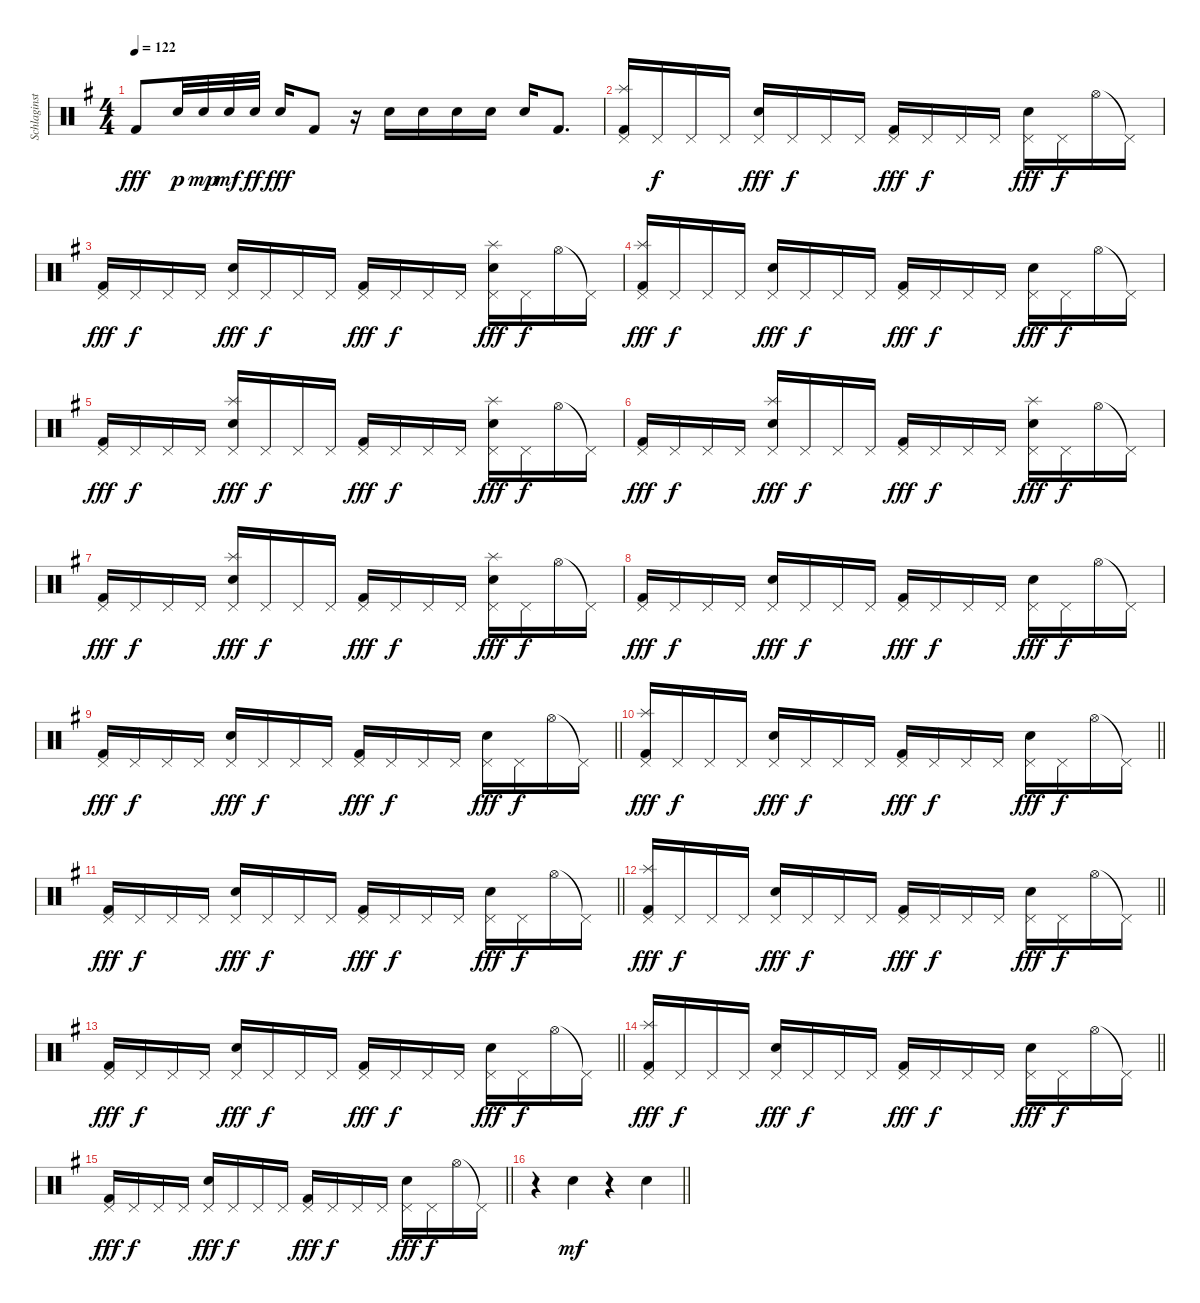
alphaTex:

\track ("Schlaginstrumente - Auswahl" "Schlaginst") {instrument percussion}
\staff {score}
\articulation defaults
\ts (4 4)
\tempo 122
\clef neutral
\ks g "Kick (hit) 2".8{dy fff} "Electric Snare (hit)".32{dy p} "Electric Snare (hit)".32{dy mp} "Electric Snare (hit)".32{dy mf} "Electric Snare (hit)".32{dy ff} "Electric Snare (hit)".16{dy fff} "Kick (hit) 2".8
r.16 "Electric Snare (hit)".16 "Electric Snare (hit)".16 "Electric Snare (hit)".16 "Electric Snare (hit)".16 "Electric Snare (hit)".16 "Kick (hit) 2".8{d} |
("Splash (hit)" "Pedal Hi-Hat (hit)" "Kick (hit) 2").16 "Pedal Hi-Hat (hit)".16{dy f} "Pedal Hi-Hat (hit)".16 "Pedal Hi-Hat (hit)".16 ("Pedal Hi-Hat (hit)" "Electric Snare (hit)").16{dy fff} "Pedal Hi-Hat (hit)".16{dy f} "Pedal Hi-Hat (hit)".16 "Pedal Hi-Hat (hit)".16 ("Pedal Hi-Hat (hit)" "Kick (hit) 2").16{dy fff} "Pedal Hi-Hat (hit)".16{dy f} "Pedal Hi-Hat (hit)".16 "Pedal Hi-Hat (hit)".16 ("Pedal Hi-Hat (hit)" "Electric Snare (hit)").16{dy fff} "Pedal Hi-Hat (hit)".16{dy f} "Hi-Hat (open)".16 "Pedal Hi-Hat (hit)"{t}.16 |
("Pedal Hi-Hat (hit)" "Kick (hit) 2").16{dy fff} "Pedal Hi-Hat (hit)".16{dy f} "Pedal Hi-Hat (hit)".16 "Pedal Hi-Hat (hit)".16 ("Pedal Hi-Hat (hit)" "Electric Snare (hit)").16{dy fff} "Pedal Hi-Hat (hit)".16{dy f} "Pedal Hi-Hat (hit)".16 "Pedal Hi-Hat (hit)".16 ("Pedal Hi-Hat (hit)" "Kick (hit) 2").16{dy fff} "Pedal Hi-Hat (hit)".16{dy f} "Pedal Hi-Hat (hit)".16 "Pedal Hi-Hat (hit)".16 ("Splash (hit)" "Pedal Hi-Hat (hit)" "Electric Snare (hit)").16{dy fff} "Pedal Hi-Hat (hit)".16{dy f} "Hi-Hat (open)".16 "Pedal Hi-Hat (hit)"{t}.16 |
("Splash (hit)" "Pedal Hi-Hat (hit)" "Kick (hit) 2").16{dy fff} "Pedal Hi-Hat (hit)".16{dy f} "Pedal Hi-Hat (hit)".16 "Pedal Hi-Hat (hit)".16 ("Pedal Hi-Hat (hit)" "Electric Snare (hit)").16{dy fff} "Pedal Hi-Hat (hit)".16{dy f} "Pedal Hi-Hat (hit)".16 "Pedal Hi-Hat (hit)".16 ("Pedal Hi-Hat (hit)" "Kick (hit) 2").16{dy fff} "Pedal Hi-Hat (hit)".16{dy f} "Pedal Hi-Hat (hit)".16 "Pedal Hi-Hat (hit)".16 ("Pedal Hi-Hat (hit)" "Electric Snare (hit)").16{dy fff} "Pedal Hi-Hat (hit)".16{dy f} "Hi-Hat (open)".16 "Pedal Hi-Hat (hit)"{t}.16 |
("Pedal Hi-Hat (hit)" "Kick (hit) 2").16{dy fff} "Pedal Hi-Hat (hit)".16{dy f} "Pedal Hi-Hat (hit)".16 "Pedal Hi-Hat (hit)".16 ("Splash (hit)" "Pedal Hi-Hat (hit)" "Electric Snare (hit)").16{dy fff} "Pedal Hi-Hat (hit)".16{dy f} "Pedal Hi-Hat (hit)".16 "Pedal Hi-Hat (hit)".16 ("Pedal Hi-Hat (hit)" "Kick (hit) 2").16{dy fff} "Pedal Hi-Hat (hit)".16{dy f} "Pedal Hi-Hat (hit)".16 "Pedal Hi-Hat (hit)".16 ("Splash (hit)" "Pedal Hi-Hat (hit)" "Electric Snare (hit)").16{dy fff} "Pedal Hi-Hat (hit)".16{dy f} "Hi-Hat (open)".16 "Pedal Hi-Hat (hit)"{t}.16 |
("Pedal Hi-Hat (hit)" "Kick (hit) 2").16{dy fff} "Pedal Hi-Hat (hit)".16{dy f} "Pedal Hi-Hat (hit)".16 "Pedal Hi-Hat (hit)".16 ("Splash (hit)" "Pedal Hi-Hat (hit)" "Electric Snare (hit)").16{dy fff} "Pedal Hi-Hat (hit)".16{dy f} "Pedal Hi-Hat (hit)".16 "Pedal Hi-Hat (hit)".16 ("Pedal Hi-Hat (hit)" "Kick (hit) 2").16{dy fff} "Pedal Hi-Hat (hit)".16{dy f} "Pedal Hi-Hat (hit)".16 "Pedal Hi-Hat (hit)".16 ("Splash (hit)" "Pedal Hi-Hat (hit)" "Electric Snare (hit)").16{dy fff} "Pedal Hi-Hat (hit)".16{dy f} "Hi-Hat (open)".16 "Pedal Hi-Hat (hit)"{t}.16 |
("Pedal Hi-Hat (hit)" "Kick (hit) 2").16{dy fff} "Pedal Hi-Hat (hit)".16{dy f} "Pedal Hi-Hat (hit)".16 "Pedal Hi-Hat (hit)".16 ("Splash (hit)" "Pedal Hi-Hat (hit)" "Electric Snare (hit)").16{dy fff} "Pedal Hi-Hat (hit)".16{dy f} "Pedal Hi-Hat (hit)".16 "Pedal Hi-Hat (hit)".16 ("Pedal Hi-Hat (hit)" "Kick (hit) 2").16{dy fff} "Pedal Hi-Hat (hit)".16{dy f} "Pedal Hi-Hat (hit)".16 "Pedal Hi-Hat (hit)".16 ("Splash (hit)" "Pedal Hi-Hat (hit)" "Electric Snare (hit)").16{dy fff} "Pedal Hi-Hat (hit)".16{dy f} "Hi-Hat (open)".16 "Pedal Hi-Hat (hit)"{t}.16 |
("Pedal Hi-Hat (hit)" "Kick (hit) 2").16{dy fff} "Pedal Hi-Hat (hit)".16{dy f} "Pedal Hi-Hat (hit)".16 "Pedal Hi-Hat (hit)".16 ("Pedal Hi-Hat (hit)" "Electric Snare (hit)").16{dy fff} "Pedal Hi-Hat (hit)".16{dy f} "Pedal Hi-Hat (hit)".16 "Pedal Hi-Hat (hit)".16 ("Pedal Hi-Hat (hit)" "Kick (hit) 2").16{dy fff} "Pedal Hi-Hat (hit)".16{dy f} "Pedal Hi-Hat (hit)".16 "Pedal Hi-Hat (hit)".16 ("Pedal Hi-Hat (hit)" "Electric Snare (hit)").16{dy fff} "Pedal Hi-Hat (hit)".16{dy f} "Hi-Hat (open)".16 "Pedal Hi-Hat (hit)"{t}.16 |
\barLineRight lightlight
("Pedal Hi-Hat (hit)" "Kick (hit) 2").16{dy fff} "Pedal Hi-Hat (hit)".16{dy f} "Pedal Hi-Hat (hit)".16 "Pedal Hi-Hat (hit)".16 ("Pedal Hi-Hat (hit)" "Electric Snare (hit)").16{dy fff} "Pedal Hi-Hat (hit)".16{dy f} "Pedal Hi-Hat (hit)".16 "Pedal Hi-Hat (hit)".16 ("Pedal Hi-Hat (hit)" "Kick (hit) 2").16{dy fff} "Pedal Hi-Hat (hit)".16{dy f} "Pedal Hi-Hat (hit)".16 "Pedal Hi-Hat (hit)".16 ("Pedal Hi-Hat (hit)" "Electric Snare (hit)").16{dy fff} "Pedal Hi-Hat (hit)".16{dy f} "Hi-Hat (open)".16 "Pedal Hi-Hat (hit)"{t}.16 |
\barLineRight lightlight
("Splash (hit)" "Pedal Hi-Hat (hit)" "Kick (hit) 2").16{dy fff} "Pedal Hi-Hat (hit)".16{dy f} "Pedal Hi-Hat (hit)".16 "Pedal Hi-Hat (hit)".16 ("Pedal Hi-Hat (hit)" "Electric Snare (hit)").16{dy fff} "Pedal Hi-Hat (hit)".16{dy f} "Pedal Hi-Hat (hit)".16 "Pedal Hi-Hat (hit)".16 ("Pedal Hi-Hat (hit)" "Kick (hit) 2").16{dy fff} "Pedal Hi-Hat (hit)".16{dy f} "Pedal Hi-Hat (hit)".16 "Pedal Hi-Hat (hit)".16 ("Pedal Hi-Hat (hit)" "Electric Snare (hit)").16{dy fff} "Pedal Hi-Hat (hit)".16{dy f} "Hi-Hat (open)".16 "Pedal Hi-Hat (hit)"{t}.16 |
\barLineRight lightlight
("Pedal Hi-Hat (hit)" "Kick (hit) 2").16{dy fff} "Pedal Hi-Hat (hit)".16{dy f} "Pedal Hi-Hat (hit)".16 "Pedal Hi-Hat (hit)".16 ("Pedal Hi-Hat (hit)" "Electric Snare (hit)").16{dy fff} "Pedal Hi-Hat (hit)".16{dy f} "Pedal Hi-Hat (hit)".16 "Pedal Hi-Hat (hit)".16 ("Pedal Hi-Hat (hit)" "Kick (hit) 2").16{dy fff} "Pedal Hi-Hat (hit)".16{dy f} "Pedal Hi-Hat (hit)".16 "Pedal Hi-Hat (hit)".16 ("Pedal Hi-Hat (hit)" "Electric Snare (hit)").16{dy fff} "Pedal Hi-Hat (hit)".16{dy f} "Hi-Hat (open)".16 "Pedal Hi-Hat (hit)"{t}.16 |
\barLineRight lightlight
("Splash (hit)" "Pedal Hi-Hat (hit)" "Kick (hit) 2").16{dy fff} "Pedal Hi-Hat (hit)".16{dy f} "Pedal Hi-Hat (hit)".16 "Pedal Hi-Hat (hit)".16 ("Pedal Hi-Hat (hit)" "Electric Snare (hit)").16{dy fff} "Pedal Hi-Hat (hit)".16{dy f} "Pedal Hi-Hat (hit)".16 "Pedal Hi-Hat (hit)".16 ("Pedal Hi-Hat (hit)" "Kick (hit) 2").16{dy fff} "Pedal Hi-Hat (hit)".16{dy f} "Pedal Hi-Hat (hit)".16 "Pedal Hi-Hat (hit)".16 ("Pedal Hi-Hat (hit)" "Electric Snare (hit)").16{dy fff} "Pedal Hi-Hat (hit)".16{dy f} "Hi-Hat (open)".16 "Pedal Hi-Hat (hit)"{t}.16 |
\barLineRight lightlight
("Pedal Hi-Hat (hit)" "Kick (hit) 2").16{dy fff} "Pedal Hi-Hat (hit)".16{dy f} "Pedal Hi-Hat (hit)".16 "Pedal Hi-Hat (hit)".16 ("Pedal Hi-Hat (hit)" "Electric Snare (hit)").16{dy fff} "Pedal Hi-Hat (hit)".16{dy f} "Pedal Hi-Hat (hit)".16 "Pedal Hi-Hat (hit)".16 ("Pedal Hi-Hat (hit)" "Kick (hit) 2").16{dy fff} "Pedal Hi-Hat (hit)".16{dy f} "Pedal Hi-Hat (hit)".16 "Pedal Hi-Hat (hit)".16 ("Pedal Hi-Hat (hit)" "Electric Snare (hit)").16{dy fff} "Pedal Hi-Hat (hit)".16{dy f} "Hi-Hat (open)".16 "Pedal Hi-Hat (hit)"{t}.16 |
\barLineRight lightlight
("Splash (hit)" "Pedal Hi-Hat (hit)" "Kick (hit) 2").16{dy fff} "Pedal Hi-Hat (hit)".16{dy f} "Pedal Hi-Hat (hit)".16 "Pedal Hi-Hat (hit)".16 ("Pedal Hi-Hat (hit)" "Electric Snare (hit)").16{dy fff} "Pedal Hi-Hat (hit)".16{dy f} "Pedal Hi-Hat (hit)".16 "Pedal Hi-Hat (hit)".16 ("Pedal Hi-Hat (hit)" "Kick (hit) 2").16{dy fff} "Pedal Hi-Hat (hit)".16{dy f} "Pedal Hi-Hat (hit)".16 "Pedal Hi-Hat (hit)".16 ("Pedal Hi-Hat (hit)" "Electric Snare (hit)").16{dy fff} "Pedal Hi-Hat (hit)".16{dy f} "Hi-Hat (open)".16 "Pedal Hi-Hat (hit)"{t}.16 |
\barLineRight lightlight
("Pedal Hi-Hat (hit)" "Kick (hit) 2").16{dy fff} "Pedal Hi-Hat (hit)".16{dy f} "Pedal Hi-Hat (hit)".16 "Pedal Hi-Hat (hit)".16 ("Pedal Hi-Hat (hit)" "Electric Snare (hit)").16{dy fff} "Pedal Hi-Hat (hit)".16{dy f} "Pedal Hi-Hat (hit)".16 "Pedal Hi-Hat (hit)".16 ("Pedal Hi-Hat (hit)" "Kick (hit) 2").16{dy fff} "Pedal Hi-Hat (hit)".16{dy f} "Pedal Hi-Hat (hit)".16 "Pedal Hi-Hat (hit)".16 ("Pedal Hi-Hat (hit)" "Electric Snare (hit)").16{dy fff} "Pedal Hi-Hat (hit)".16{dy f} "Hi-Hat (open)".16 "Pedal Hi-Hat (hit)"{t}.16 |
\barLineRight lightlight
r.4 "Electric Snare (hit)".4{dy mf} r.4 "Electric Snare (hit)".4
